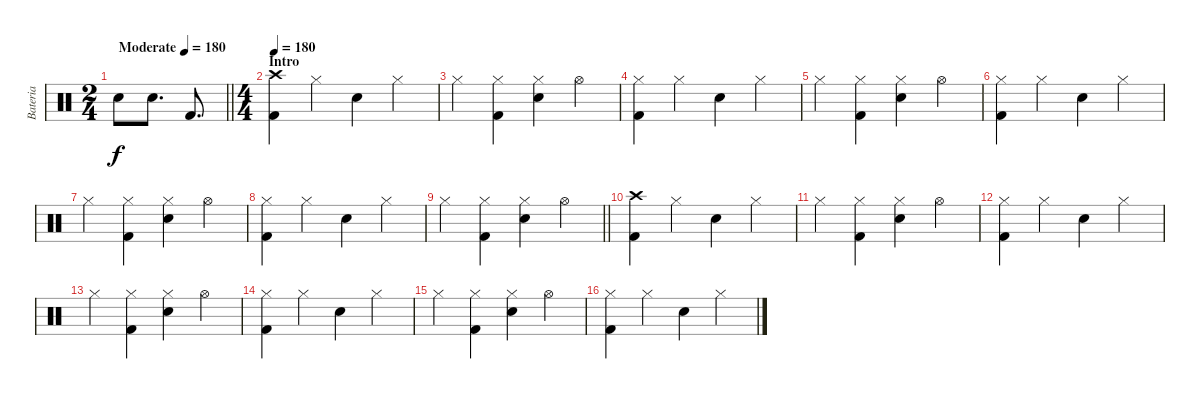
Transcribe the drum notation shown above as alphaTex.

\track ("Bateria" "Bateria") {instrument percussion}
\staff {score}
\articulation defaults
\ts (2 4)
\tempo (180 "Moderate")
\tempo 150
\tempo (180 "Moderate")
\clef neutral
\barLineRight lightlight
\ks c "Electric Snare (hit)".8{dy f} "Electric Snare (hit)".8{d} "Kick (hit) 2".8{d}
|
\ts (4 4)
\section ("" "Intro")
\tempo 180
("Crash high (hit)" "Kick (hit) 2").4 "Hi-Hat (closed)".4 "Electric Snare (hit)".4 "Hi-Hat (closed)".4 |
"Hi-Hat (closed)".4 ("Hi-Hat (closed)" "Kick (hit) 2").4 ("Hi-Hat (closed)" "Electric Snare (hit)").4 "Hi-Hat (open)".4 |
("Hi-Hat (closed)" "Kick (hit) 2").4 "Hi-Hat (closed)".4 "Electric Snare (hit)".4 "Hi-Hat (closed)".4 |
"Hi-Hat (closed)".4 ("Hi-Hat (closed)" "Kick (hit) 2").4 ("Hi-Hat (closed)" "Electric Snare (hit)").4 "Hi-Hat (open)".4 |
("Hi-Hat (closed)" "Kick (hit) 2").4 "Hi-Hat (closed)".4 "Electric Snare (hit)".4 "Hi-Hat (closed)".4 |
"Hi-Hat (closed)".4 ("Hi-Hat (closed)" "Kick (hit) 2").4 ("Hi-Hat (closed)" "Electric Snare (hit)").4 "Hi-Hat (open)".4 |
("Hi-Hat (closed)" "Kick (hit) 2").4 "Hi-Hat (closed)".4 "Electric Snare (hit)".4 "Hi-Hat (closed)".4 |
\barLineRight lightlight "Hi-Hat (closed)".4
("Hi-Hat (closed)" "Kick (hit) 2").4 ("Hi-Hat (closed)" "Electric Snare (hit)").4 "Hi-Hat (open)".4 |
\section ("" "")
("Crash high (hit)" "Kick (hit) 2").4 "Hi-Hat (closed)".4 "Electric Snare (hit)".4 "Hi-Hat (closed)".4 |
"Hi-Hat (closed)".4 ("Hi-Hat (closed)" "Kick (hit) 2").4 ("Hi-Hat (closed)" "Electric Snare (hit)").4 "Hi-Hat (open)".4 |
("Hi-Hat (closed)" "Kick (hit) 2").4 "Hi-Hat (closed)".4 "Electric Snare (hit)".4 "Hi-Hat (closed)".4 |
"Hi-Hat (closed)".4 ("Hi-Hat (closed)" "Kick (hit) 2").4 ("Hi-Hat (closed)" "Electric Snare (hit)").4 "Hi-Hat (open)".4 |
("Hi-Hat (closed)" "Kick (hit) 2").4 "Hi-Hat (closed)".4 "Electric Snare (hit)".4 "Hi-Hat (closed)".4 |
"Hi-Hat (closed)".4 ("Hi-Hat (closed)" "Kick (hit) 2").4 ("Hi-Hat (closed)" "Electric Snare (hit)").4 "Hi-Hat (open)".4 |
("Hi-Hat (closed)" "Kick (hit) 2").4 "Hi-Hat (closed)".4 "Electric Snare (hit)".4 "Hi-Hat (closed)".4
